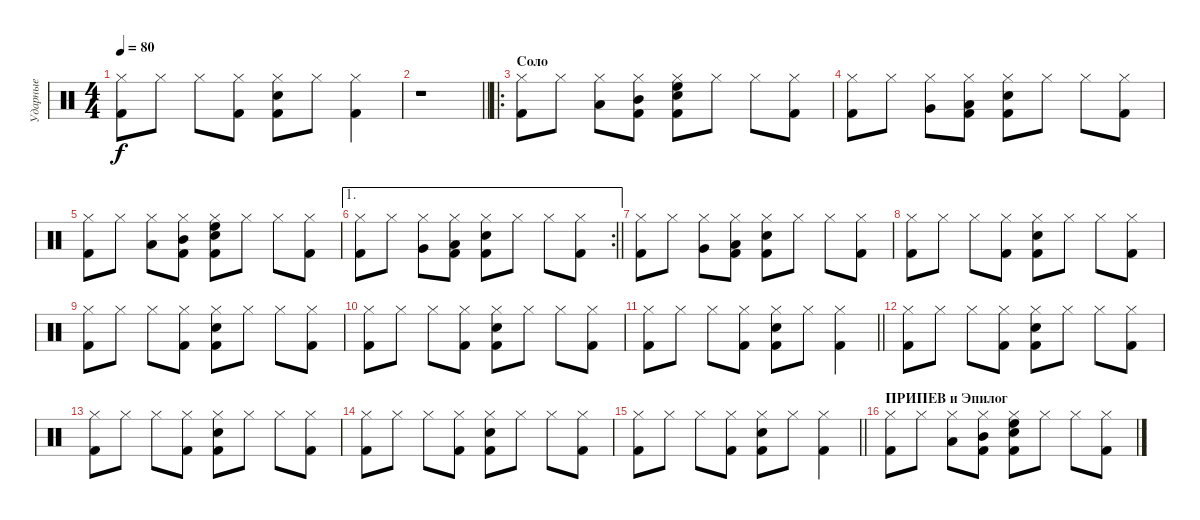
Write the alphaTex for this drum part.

\track ("Ударные" "Ударные") {instrument percussion}
\staff {score}
\articulation defaults
\ts (4 4)
\tempo 80
\clef neutral
\ks c
("Kick (hit) 2" "Hi-Hat (closed)").8{dy f} "Hi-Hat (closed)".8 "Hi-Hat (closed)".8 ("Kick (hit) 2" "Hi-Hat (closed)").8 ("Snare (hit) 2" "Kick (hit) 2" "Hi-Hat (closed)").8 "Hi-Hat (closed)".8 ("Kick (hit) 2" "Hi-Hat (closed)").4 |
\barLineRight lightlight
r.1 |
\ro
\section ("" "Соло")
("Kick (hit) 2" "Hi-Hat (closed)").8 "Hi-Hat (closed)".8 ("Hi-Hat (closed)" "Low Tom (hit)").8 ("Kick (hit) 2" "Hi-Hat (closed)" "Mid Tom (hit)").8 ("Snare (hit) 2" "Kick (hit) 2" "Hi-Hat (closed)" "High Floor Tom (hit)").8 "Hi-Hat (closed)".8 "Hi-Hat (closed)".8 ("Kick (hit) 2" "Hi-Hat (closed)").8 |
("Kick (hit) 2" "Hi-Hat (closed)").8 "Hi-Hat (closed)".8 ("Hi-Hat (closed)" "Very Low Tom (hit)").8 ("Kick (hit) 2" "Hi-Hat (closed)" "Low Floor Tom (hit)").8 ("Snare (hit) 2" "Kick (hit) 2" "Hi-Hat (closed)").8 "Hi-Hat (closed)".8 "Hi-Hat (closed)".8 ("Kick (hit) 2" "Hi-Hat (closed)").8 |
("Kick (hit) 2" "Hi-Hat (closed)").8 "Hi-Hat (closed)".8 ("Hi-Hat (closed)" "Low Tom (hit)").8 ("Kick (hit) 2" "Hi-Hat (closed)" "Mid Tom (hit)").8 ("Snare (hit) 2" "Kick (hit) 2" "Hi-Hat (closed)" "High Floor Tom (hit)").8 "Hi-Hat (closed)".8 "Hi-Hat (closed)".8 ("Kick (hit) 2" "Hi-Hat (closed)").8 |
\ae 1
\rc 2
\barLineRight lightlight
("Kick (hit) 2" "Hi-Hat (closed)").8 "Hi-Hat (closed)".8 ("Hi-Hat (closed)" "Very Low Tom (hit)").8 ("Kick (hit) 2" "Hi-Hat (closed)" "Low Floor Tom (hit)").8 ("Snare (hit) 2" "Kick (hit) 2" "Hi-Hat (closed)").8 "Hi-Hat (closed)".8 "Hi-Hat (closed)".8 ("Kick (hit) 2" "Hi-Hat (closed)").8 |
("Kick (hit) 2" "Hi-Hat (closed)").8 "Hi-Hat (closed)".8 ("Hi-Hat (closed)" "Very Low Tom (hit)").8 ("Kick (hit) 2" "Hi-Hat (closed)" "Low Floor Tom (hit)").8 ("Snare (hit) 2" "Kick (hit) 2" "Hi-Hat (closed)").8 "Hi-Hat (closed)".8 "Hi-Hat (closed)".8 ("Kick (hit) 2" "Hi-Hat (closed)").8 |
("Kick (hit) 2" "Hi-Hat (closed)").8 "Hi-Hat (closed)".8 "Hi-Hat (closed)".8 ("Kick (hit) 2" "Hi-Hat (closed)").8 ("Snare (hit) 2" "Kick (hit) 2" "Hi-Hat (closed)").8 "Hi-Hat (closed)".8 "Hi-Hat (closed)".8 ("Kick (hit) 2" "Hi-Hat (closed)").8 |
("Kick (hit) 2" "Hi-Hat (closed)").8 "Hi-Hat (closed)".8 "Hi-Hat (closed)".8 ("Kick (hit) 2" "Hi-Hat (closed)").8 ("Snare (hit) 2" "Kick (hit) 2" "Hi-Hat (closed)").8 "Hi-Hat (closed)".8 "Hi-Hat (closed)".8 ("Kick (hit) 2" "Hi-Hat (closed)").8 |
("Kick (hit) 2" "Hi-Hat (closed)").8 "Hi-Hat (closed)".8 "Hi-Hat (closed)".8 ("Kick (hit) 2" "Hi-Hat (closed)").8 ("Snare (hit) 2" "Kick (hit) 2" "Hi-Hat (closed)").8 "Hi-Hat (closed)".8 "Hi-Hat (closed)".8 ("Kick (hit) 2" "Hi-Hat (closed)").8 |
\barLineRight lightlight
("Kick (hit) 2" "Hi-Hat (closed)").8 "Hi-Hat (closed)".8 "Hi-Hat (closed)".8 ("Kick (hit) 2" "Hi-Hat (closed)").8 ("Snare (hit) 2" "Kick (hit) 2" "Hi-Hat (closed)").8 "Hi-Hat (closed)".8 ("Kick (hit) 2" "Hi-Hat (closed)").4 |
("Kick (hit) 2" "Hi-Hat (closed)").8 "Hi-Hat (closed)".8 "Hi-Hat (closed)".8 ("Kick (hit) 2" "Hi-Hat (closed)").8 ("Snare (hit) 2" "Kick (hit) 2" "Hi-Hat (closed)").8 "Hi-Hat (closed)".8 "Hi-Hat (closed)".8 ("Kick (hit) 2" "Hi-Hat (closed)").8 |
("Kick (hit) 2" "Hi-Hat (closed)").8 "Hi-Hat (closed)".8 "Hi-Hat (closed)".8 ("Kick (hit) 2" "Hi-Hat (closed)").8 ("Snare (hit) 2" "Kick (hit) 2" "Hi-Hat (closed)").8 "Hi-Hat (closed)".8 "Hi-Hat (closed)".8 ("Kick (hit) 2" "Hi-Hat (closed)").8 |
("Kick (hit) 2" "Hi-Hat (closed)").8 "Hi-Hat (closed)".8 "Hi-Hat (closed)".8 ("Kick (hit) 2" "Hi-Hat (closed)").8 ("Snare (hit) 2" "Kick (hit) 2" "Hi-Hat (closed)").8 "Hi-Hat (closed)".8 "Hi-Hat (closed)".8 ("Kick (hit) 2" "Hi-Hat (closed)").8 |
\barLineRight lightlight
("Kick (hit) 2" "Hi-Hat (closed)").8 "Hi-Hat (closed)".8 "Hi-Hat (closed)".8 ("Kick (hit) 2" "Hi-Hat (closed)").8 ("Snare (hit) 2" "Kick (hit) 2" "Hi-Hat (closed)").8 "Hi-Hat (closed)".8 ("Kick (hit) 2" "Hi-Hat (closed)").4 |
\section ("" "ПРИПЕВ и Эпилог")
("Kick (hit) 2" "Hi-Hat (closed)").8 "Hi-Hat (closed)".8 ("Hi-Hat (closed)" "Low Tom (hit)").8 ("Kick (hit) 2" "Hi-Hat (closed)" "Mid Tom (hit)").8 ("Snare (hit) 2" "Kick (hit) 2" "Hi-Hat (closed)" "High Floor Tom (hit)").8 "Hi-Hat (closed)".8 "Hi-Hat (closed)".8 ("Kick (hit) 2" "Hi-Hat (closed)").8
